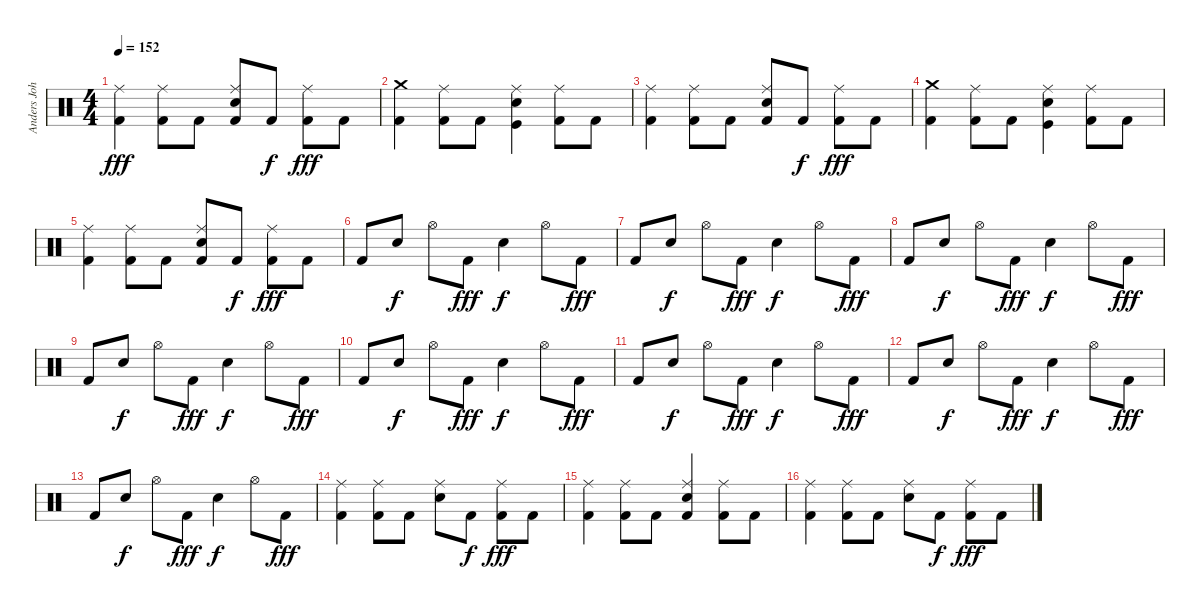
\track ("Anders Johansson (Drums)" "Anders Joh") {instrument percussion}
\staff {score}
\articulation defaults
\ts (4 4)
\tempo 152
\clef neutral
\ks c
("Kick (hit) 2" "Ride (middle)").4{dy fff} ("Kick (hit) 2" "Ride (middle)").8 "Kick (hit) 2".8 ("Kick (hit) 2" "Electric Snare (hit)" "Ride (middle)").8 "Kick (hit) 2".8{dy f} ("Kick (hit) 2" "Ride (middle)").8{dy fff} "Kick (hit) 2".8 |
("Kick (hit) 2" "Crash medium (hit)").4 ("Kick (hit) 2" "Ride (middle)").8 "Kick (hit) 2".8 ("Kick (hit)" "Electric Snare (hit)" "Ride (middle)").4 ("Kick (hit) 2" "Ride (middle)").8 "Kick (hit) 2".8 |
("Kick (hit) 2" "Ride (middle)").4 ("Kick (hit) 2" "Ride (middle)").8 "Kick (hit) 2".8 ("Kick (hit) 2" "Electric Snare (hit)" "Ride (middle)").8 "Kick (hit) 2".8{dy f} ("Kick (hit) 2" "Ride (middle)").8{dy fff} "Kick (hit) 2".8 |
("Kick (hit) 2" "Crash medium (hit)").4 ("Kick (hit) 2" "Ride (middle)").8 "Kick (hit) 2".8 ("Kick (hit)" "Electric Snare (hit)" "Ride (middle)").4 ("Kick (hit) 2" "Ride (middle)").8 "Kick (hit) 2".8 |
("Kick (hit) 2" "Ride (middle)").4 ("Kick (hit) 2" "Ride (middle)").8 "Kick (hit) 2".8 ("Kick (hit) 2" "Electric Snare (hit)" "Ride (middle)").8 "Kick (hit) 2".8{dy f} ("Kick (hit) 2" "Ride (middle)").8{dy fff} "Kick (hit) 2".8 |
"Kick (hit) 2".8 "Electric Snare (hit)".8{dy f} "Hi-Hat (open)".8 "Kick (hit) 2".8{dy fff} "Electric Snare (hit)".4{dy f} "Hi-Hat (open)".8 "Kick (hit) 2".8{dy fff} |
"Kick (hit) 2".8 "Electric Snare (hit)".8{dy f} "Hi-Hat (open)".8 "Kick (hit) 2".8{dy fff} "Electric Snare (hit)".4{dy f} "Hi-Hat (open)".8 "Kick (hit) 2".8{dy fff} |
"Kick (hit) 2".8 "Electric Snare (hit)".8{dy f} "Hi-Hat (open)".8 "Kick (hit) 2".8{dy fff} "Electric Snare (hit)".4{dy f} "Hi-Hat (open)".8 "Kick (hit) 2".8{dy fff} |
"Kick (hit) 2".8 "Electric Snare (hit)".8{dy f} "Hi-Hat (open)".8 "Kick (hit) 2".8{dy fff} "Electric Snare (hit)".4{dy f} "Hi-Hat (open)".8 "Kick (hit) 2".8{dy fff} |
"Kick (hit) 2".8 "Electric Snare (hit)".8{dy f} "Hi-Hat (open)".8 "Kick (hit) 2".8{dy fff} "Electric Snare (hit)".4{dy f} "Hi-Hat (open)".8 "Kick (hit) 2".8{dy fff} |
"Kick (hit) 2".8 "Electric Snare (hit)".8{dy f} "Hi-Hat (open)".8 "Kick (hit) 2".8{dy fff} "Electric Snare (hit)".4{dy f} "Hi-Hat (open)".8 "Kick (hit) 2".8{dy fff} |
"Kick (hit) 2".8 "Electric Snare (hit)".8{dy f} "Hi-Hat (open)".8 "Kick (hit) 2".8{dy fff} "Electric Snare (hit)".4{dy f} "Hi-Hat (open)".8 "Kick (hit) 2".8{dy fff} |
"Kick (hit) 2".8 "Electric Snare (hit)".8{dy f} "Hi-Hat (open)".8 "Kick (hit) 2".8{dy fff} "Electric Snare (hit)".4{dy f} "Hi-Hat (open)".8 "Kick (hit) 2".8{dy fff} |
("Kick (hit) 2" "Ride (middle)").4 ("Kick (hit) 2" "Ride (middle)").8 "Kick (hit) 2".8 ("Electric Snare (hit)" "Ride (middle)").8 "Kick (hit) 2".8{dy f} ("Kick (hit) 2" "Ride (middle)").8{dy fff} "Kick (hit) 2".8 |
("Kick (hit) 2" "Ride (middle)").4 ("Kick (hit) 2" "Ride (middle)").8 "Kick (hit) 2".8 ("Kick (hit) 2" "Electric Snare (hit)" "Ride (middle)").4 ("Kick (hit) 2" "Ride (middle)").8 "Kick (hit) 2".8 |
("Kick (hit) 2" "Ride (middle)").4 ("Kick (hit) 2" "Ride (middle)").8 "Kick (hit) 2".8 ("Electric Snare (hit)" "Ride (middle)").8 "Kick (hit) 2".8{dy f} ("Kick (hit) 2" "Ride (middle)").8{dy fff} "Kick (hit) 2".8
